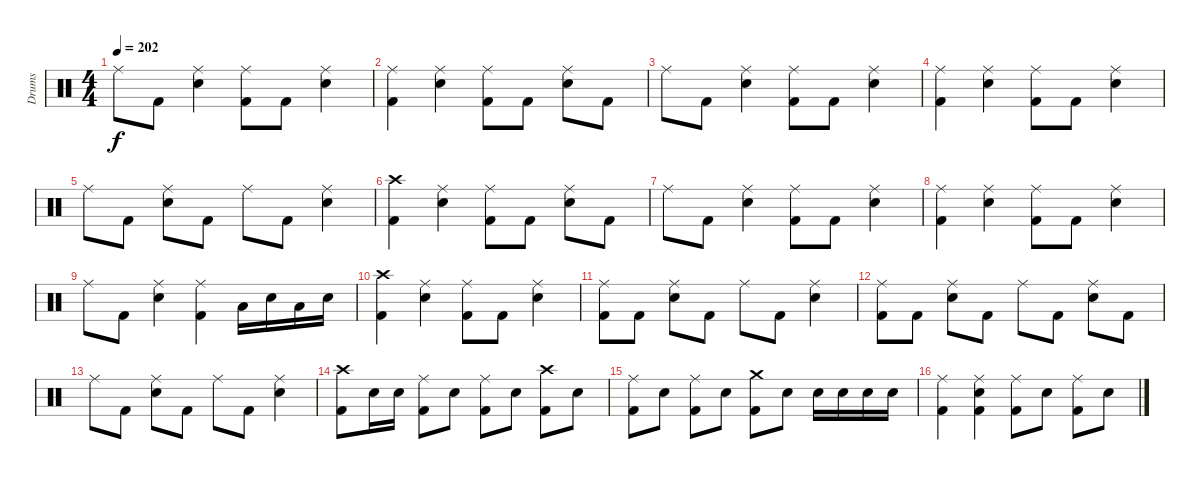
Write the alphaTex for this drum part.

\track ("Drums" "Drums") {instrument percussion}
\staff {score}
\articulation defaults
\ts (4 4)
\tempo 202
\clef neutral
\ks c "Ride (middle)".8{dy f} "Kick (hit) 2".8
("Ride (middle)" "Electric Snare (hit)").4 ("Ride (middle)" "Kick (hit) 2").8 "Kick (hit) 2".8 ("Ride (middle)" "Electric Snare (hit)").4 |
("Ride (middle)" "Kick (hit) 2").4 ("Ride (middle)" "Electric Snare (hit)").4 ("Ride (middle)" "Kick (hit) 2").8 "Kick (hit) 2".8 ("Ride (middle)" "Electric Snare (hit)").8 "Kick (hit) 2".8 |
"Ride (middle)".8 "Kick (hit) 2".8 ("Ride (middle)" "Electric Snare (hit)").4 ("Ride (middle)" "Kick (hit) 2").8 "Kick (hit) 2".8 ("Ride (middle)" "Electric Snare (hit)").4 |
("Ride (middle)" "Kick (hit) 2").4 ("Ride (middle)" "Electric Snare (hit)").4 ("Ride (middle)" "Kick (hit) 2").8 "Kick (hit) 2".8 ("Ride (middle)" "Electric Snare (hit)").4 |
"Ride (middle)".8 "Kick (hit) 2".8 ("Ride (middle)" "Electric Snare (hit)").8 "Kick (hit) 2".8 "Ride (middle)".8 "Kick (hit) 2".8 ("Ride (middle)" "Electric Snare (hit)").4 |
("Crash high (hit)" "Kick (hit) 2").4 ("Ride (middle)" "Electric Snare (hit)").4 ("Ride (middle)" "Kick (hit) 2").8 "Kick (hit) 2".8 ("Ride (middle)" "Electric Snare (hit)").8 "Kick (hit) 2".8 |
"Ride (middle)".8 "Kick (hit) 2".8 ("Ride (middle)" "Electric Snare (hit)").4 ("Ride (middle)" "Kick (hit) 2").8 "Kick (hit) 2".8 ("Ride (middle)" "Electric Snare (hit)").4 |
("Ride (middle)" "Kick (hit) 2").4 ("Ride (middle)" "Electric Snare (hit)").4 ("Ride (middle)" "Kick (hit) 2").8 "Kick (hit) 2".8 ("Ride (middle)" "Electric Snare (hit)").4 |
"Ride (middle)".8 "Kick (hit) 2".8 ("Ride (middle)" "Electric Snare (hit)").4 ("Ride (middle)" "Kick (hit) 2").4 "Low Tom (hit)".16 "Electric Snare (hit)".16 "Low Tom (hit)".16 "Electric Snare (hit)".16 |
("Crash high (hit)" "Kick (hit) 2").4 ("Ride (middle)" "Electric Snare (hit)").4 ("Ride (middle)" "Kick (hit) 2").8 "Kick (hit) 2".8 ("Ride (middle)" "Electric Snare (hit)").4 |
("Ride (middle)" "Kick (hit) 2").8 "Kick (hit) 2".8 ("Ride (middle)" "Electric Snare (hit)").8 "Kick (hit) 2".8 "Ride (middle)".8 "Kick (hit) 2".8 ("Ride (middle)" "Electric Snare (hit)").4 |
("Ride (middle)" "Kick (hit) 2").8 "Kick (hit) 2".8 ("Ride (middle)" "Electric Snare (hit)").8 "Kick (hit) 2".8 "Ride (middle)".8 "Kick (hit) 2".8 ("Ride (middle)" "Electric Snare (hit)").8 "Kick (hit) 2".8 |
"Ride (middle)".8 "Kick (hit) 2".8 ("Ride (middle)" "Electric Snare (hit)").8 "Kick (hit) 2".8 "Ride (middle)".8 "Kick (hit) 2".8 ("Ride (middle)" "Electric Snare (hit)").4 |
("Crash high (hit)" "Kick (hit) 2").8 "Electric Snare (hit)".16 "Electric Snare (hit)".16 ("Ride (middle)" "Kick (hit) 2").8 "Electric Snare (hit)".8 ("Ride (middle)" "Kick (hit) 2").8 "Electric Snare (hit)".8 ("Crash high (hit)" "Kick (hit) 2").8 "Electric Snare (hit)".8 |
("Ride (middle)" "Kick (hit) 2").8 "Electric Snare (hit)".8 ("Ride (middle)" "Kick (hit) 2").8 "Electric Snare (hit)".8 ("Crash medium (hit)" "Kick (hit) 2").8 "Electric Snare (hit)".8 "Electric Snare (hit)".16 "Electric Snare (hit)".16 "Electric Snare (hit)".16 "Electric Snare (hit)".16 |
("Ride (middle)" "Kick (hit) 2").4 ("Ride (middle)" "Electric Snare (hit)" "Kick (hit) 2").4 ("Ride (middle)" "Kick (hit) 2").8 "Electric Snare (hit)".8 ("Ride (middle)" "Kick (hit) 2").8 "Electric Snare (hit)".8
